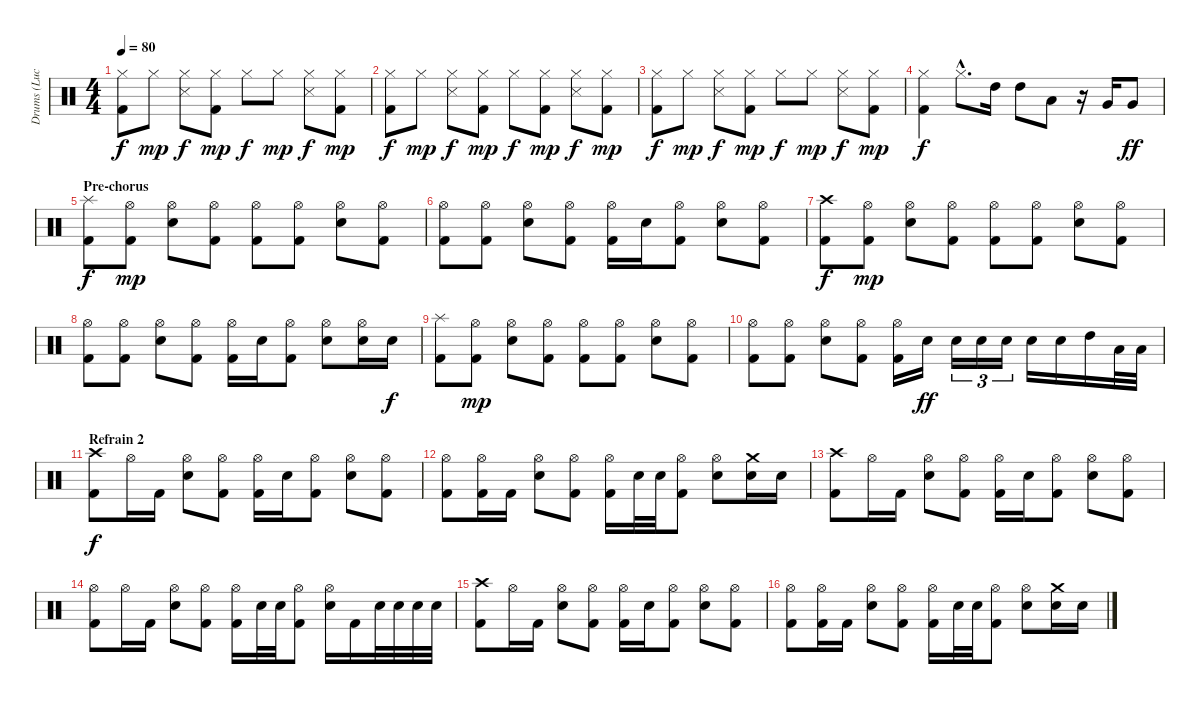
\track ("Drums (Luc)" "Drums (Luc") {instrument percussion}
\staff {score}
\articulation defaults
\ts (4 4)
\tempo 80
\clef neutral
\ks c
("Hi-Hat (closed)" "Kick (hit) 2").8{dy f} "Hi-Hat (closed)".8{dy mp} ("Hi-Hat (closed)" "Snare (side stick) 3").8{dy f} ("Hi-Hat (closed)" "Kick (hit) 2").8{dy mp} "Hi-Hat (closed)".8{dy f} "Hi-Hat (closed)".8{dy mp} ("Hi-Hat (closed)" "Snare (side stick) 3").8{dy f} ("Hi-Hat (closed)" "Kick (hit) 2").8{dy mp} |
("Hi-Hat (closed)" "Kick (hit) 2").8{dy f} "Hi-Hat (closed)".8{dy mp} ("Hi-Hat (closed)" "Snare (side stick) 3").8{dy f} ("Hi-Hat (closed)" "Kick (hit) 2").8{dy mp} "Hi-Hat (closed)".8{dy f} ("Hi-Hat (closed)" "Kick (hit) 2").8{dy mp} ("Hi-Hat (closed)" "Snare (side stick) 3").8{dy f} ("Hi-Hat (closed)" "Kick (hit) 2").8{dy mp} |
("Hi-Hat (closed)" "Kick (hit) 2").8{dy f} "Hi-Hat (closed)".8{dy mp} ("Hi-Hat (closed)" "Snare (side stick) 3").8{dy f} ("Hi-Hat (closed)" "Kick (hit) 2").8{dy mp} "Hi-Hat (closed)".8{dy f} "Hi-Hat (closed)".8{dy mp} ("Hi-Hat (closed)" "Snare (side stick) 3").8{dy f} ("Hi-Hat (closed)" "Kick (hit) 2").8{dy mp} |
("Hi-Hat (closed)" "Kick (hit) 2").4{dy f} "Hi-Hat (closed)"{hac}.8{d} "High Tom (hit)".16 "High Tom (hit)".8 "Low Tom (hit)".8 r.16 "Very Low Tom (hit)".16 "Very Low Tom (hit)".8{dy ff} |
\section ("" "Pre-chorus")
("Splash (hit)" "Kick (hit) 2").8{dy f} ("Hi-Hat (open)" "Kick (hit) 2").8{dy mp} ("Hi-Hat (open)" "Snare (hit) 2").8 ("Hi-Hat (open)" "Kick (hit) 2").8 ("Hi-Hat (open)" "Kick (hit) 2").8 ("Hi-Hat (open)" "Kick (hit) 2").8 ("Hi-Hat (open)" "Snare (hit) 2").8 ("Hi-Hat (open)" "Kick (hit) 2").8 |
("Hi-Hat (open)" "Kick (hit) 2").8 ("Hi-Hat (open)" "Kick (hit) 2").8 ("Hi-Hat (open)" "Snare (hit) 2").8 ("Hi-Hat (open)" "Kick (hit) 2").8 ("Hi-Hat (open)" "Kick (hit) 2").16 "Snare (hit) 2".16 ("Hi-Hat (open)" "Kick (hit) 2").8 ("Hi-Hat (open)" "Snare (hit) 2").8 ("Hi-Hat (open)" "Kick (hit) 2").8 |
("Crash high (hit)" "Kick (hit) 2").8{dy f} ("Hi-Hat (open)" "Kick (hit) 2").8{dy mp} ("Hi-Hat (open)" "Snare (hit) 2").8 ("Hi-Hat (open)" "Kick (hit) 2").8 ("Hi-Hat (open)" "Kick (hit) 2").8 ("Hi-Hat (open)" "Kick (hit) 2").8 ("Hi-Hat (open)" "Snare (hit) 2").8 ("Hi-Hat (open)" "Kick (hit) 2").8 |
("Hi-Hat (open)" "Kick (hit) 2").8 ("Hi-Hat (open)" "Kick (hit) 2").8 ("Hi-Hat (open)" "Snare (hit) 2").8 ("Hi-Hat (open)" "Kick (hit) 2").8 ("Hi-Hat (open)" "Kick (hit) 2").16 "Snare (hit) 2".16 ("Hi-Hat (open)" "Kick (hit) 2").8 ("Hi-Hat (open)" "Snare (hit) 2").8 ("Hi-Hat (open)" "Snare (hit) 2").16 "Snare (hit) 2".16{dy f} |
("Splash (hit)" "Kick (hit) 2").8 ("Hi-Hat (open)" "Kick (hit) 2").8{dy mp} ("Hi-Hat (open)" "Snare (hit) 2").8 ("Hi-Hat (open)" "Kick (hit) 2").8 ("Hi-Hat (open)" "Kick (hit) 2").8 ("Hi-Hat (open)" "Kick (hit) 2").8 ("Hi-Hat (open)" "Snare (hit) 2").8 ("Hi-Hat (open)" "Kick (hit) 2").8 |
("Hi-Hat (open)" "Kick (hit) 2").8 ("Hi-Hat (open)" "Kick (hit) 2").8 ("Hi-Hat (open)" "Snare (hit) 2").8 ("Hi-Hat (open)" "Kick (hit) 2").8 ("Hi-Hat (open)" "Kick (hit) 2").16 "Snare (hit) 2".16{dy ff} "Snare (hit) 2".16{tu (3 2)} "Snare (hit) 2".16{tu (3 2)} "Snare (hit) 2".16{tu (3 2)} "Snare (hit) 2".16 "Snare (hit) 2".16 "High Tom (hit)".16 "Low Tom (hit)".32 "Low Floor Tom (hit)".32 |
\section ("" "Refrain 2")
("Crash high (hit)" "Kick (hit) 2").8{dy f} "Hi-Hat (open)".16 "Kick (hit) 2".16 ("Hi-Hat (open)" "Electric Snare (hit)").8 ("Hi-Hat (open)" "Kick (hit) 2").8 ("Hi-Hat (open)" "Kick (hit) 2").16 "Electric Snare (hit)".16 ("Hi-Hat (open)" "Kick (hit) 2").8 ("Hi-Hat (open)" "Electric Snare (hit)").8 ("Hi-Hat (open)" "Kick (hit) 2").8 |
("Hi-Hat (open)" "Kick (hit) 2").8 ("Hi-Hat (open)" "Kick (hit) 2").16 "Kick (hit) 2".16 ("Hi-Hat (open)" "Electric Snare (hit)").8 ("Hi-Hat (open)" "Kick (hit) 2").8 ("Hi-Hat (open)" "Kick (hit) 2").16 "Electric Snare (hit)".32 "Electric Snare (hit)".32 ("Hi-Hat (open)" "Kick (hit) 2").8 ("Hi-Hat (open)" "Electric Snare (hit)").8 ("Crash medium (hit)" "Electric Snare (hit)").16 "Electric Snare (hit)".16 |
("Crash high (hit)" "Kick (hit) 2").8 "Hi-Hat (open)".16 "Kick (hit) 2".16 ("Hi-Hat (open)" "Electric Snare (hit)").8 ("Hi-Hat (open)" "Kick (hit) 2").8 ("Hi-Hat (open)" "Kick (hit) 2").16 "Electric Snare (hit)".16 ("Hi-Hat (open)" "Kick (hit) 2").8 ("Hi-Hat (open)" "Electric Snare (hit)").8 ("Hi-Hat (open)" "Kick (hit) 2").8 |
("Hi-Hat (open)" "Kick (hit) 2").8 "Hi-Hat (open)".16 "Kick (hit) 2".16 ("Hi-Hat (open)" "Electric Snare (hit)").8 ("Hi-Hat (open)" "Kick (hit) 2").8 ("Hi-Hat (open)" "Kick (hit) 2").16 "Electric Snare (hit)".32 "Electric Snare (hit)".32 ("Hi-Hat (open)" "Kick (hit) 2").8 ("Hi-Hat (open)" "Electric Snare (hit)").16 "Kick (hit) 2".16 "Electric Snare (hit)".32 "Electric Snare (hit)".32 "Electric Snare (hit)".32 "Electric Snare (hit)".32 |
("Crash high (hit)" "Kick (hit) 2").8 "Hi-Hat (open)".16 "Kick (hit) 2".16 ("Hi-Hat (open)" "Electric Snare (hit)").8 ("Hi-Hat (open)" "Kick (hit) 2").8 ("Hi-Hat (open)" "Kick (hit) 2").16 "Electric Snare (hit)".16 ("Hi-Hat (open)" "Kick (hit) 2").8 ("Hi-Hat (open)" "Electric Snare (hit)").8 ("Hi-Hat (open)" "Kick (hit) 2").8 |
("Hi-Hat (open)" "Kick (hit) 2").8 ("Hi-Hat (open)" "Kick (hit) 2").16 "Kick (hit) 2".16 ("Hi-Hat (open)" "Electric Snare (hit)").8 ("Hi-Hat (open)" "Kick (hit) 2").8 ("Hi-Hat (open)" "Kick (hit) 2").16 "Electric Snare (hit)".32 "Electric Snare (hit)".32 ("Hi-Hat (open)" "Kick (hit) 2").8 ("Hi-Hat (open)" "Electric Snare (hit)").8 ("Crash medium (hit)" "Electric Snare (hit)").16 "Electric Snare (hit)".16
